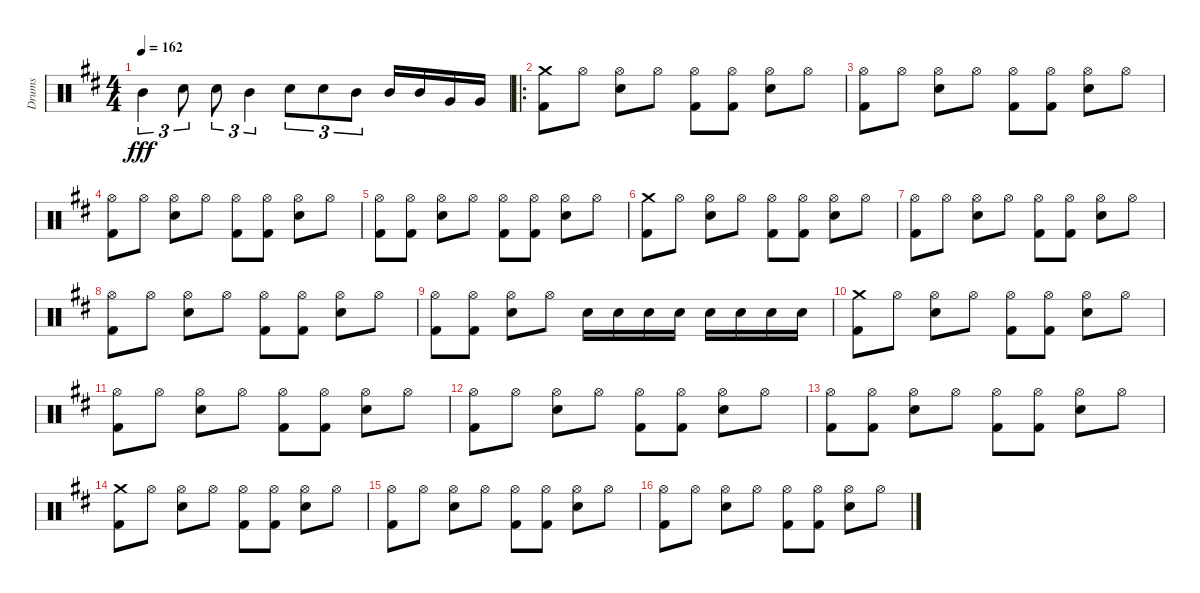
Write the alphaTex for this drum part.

\track ("Drums" "Drums") {instrument percussion}
\staff {score}
\articulation defaults
\ts (4 4)
\tempo 162
\clef neutral
\ks d "Mid Tom (hit)".4{tu (3 2) dy fff} "Snare (hit) 2".8{tu (3 2)} "Snare (hit) 2".8{tu (3 2)} "Mid Tom (hit)".4{tu (3 2)} "Snare (hit) 2".8{tu (3 2)} "Snare (hit) 2".8{tu (3 2)} "Mid Tom (hit)".8{tu (3 2)} "Mid Tom (hit)".16 "Mid Tom (hit)".16 "Very Low Tom (hit)".16 "Very Low Tom (hit)".16
|
\ro
("Crash medium (hit)" "Kick (hit) 2").8 "Hi-Hat (open)".8 ("Hi-Hat (open)" "Snare (hit) 2").8 "Hi-Hat (open)".8 ("Hi-Hat (open)" "Kick (hit) 2").8 ("Hi-Hat (open)" "Kick (hit) 2").8 ("Hi-Hat (open)" "Snare (hit) 2").8 "Hi-Hat (open)".8 |
("Hi-Hat (open)" "Kick (hit) 2").8 "Hi-Hat (open)".8 ("Hi-Hat (open)" "Snare (hit) 2").8 "Hi-Hat (open)".8 ("Hi-Hat (open)" "Kick (hit) 2").8 ("Hi-Hat (open)" "Kick (hit) 2").8 ("Hi-Hat (open)" "Snare (hit) 2").8 "Hi-Hat (open)".8 |
("Hi-Hat (open)" "Kick (hit) 2").8 "Hi-Hat (open)".8 ("Hi-Hat (open)" "Snare (hit) 2").8 "Hi-Hat (open)".8 ("Hi-Hat (open)" "Kick (hit) 2").8 ("Hi-Hat (open)" "Kick (hit) 2").8 ("Hi-Hat (open)" "Snare (hit) 2").8 "Hi-Hat (open)".8 |
("Hi-Hat (open)" "Kick (hit) 2").8 ("Hi-Hat (open)" "Kick (hit) 2").8 ("Hi-Hat (open)" "Snare (hit) 2").8 "Hi-Hat (open)".8 ("Hi-Hat (open)" "Kick (hit) 2").8 ("Hi-Hat (open)" "Kick (hit) 2").8 ("Hi-Hat (open)" "Snare (hit) 2").8 "Hi-Hat (open)".8 |
("Crash medium (hit)" "Kick (hit) 2").8 "Hi-Hat (open)".8 ("Hi-Hat (open)" "Snare (hit) 2").8 "Hi-Hat (open)".8 ("Hi-Hat (open)" "Kick (hit) 2").8 ("Hi-Hat (open)" "Kick (hit) 2").8 ("Hi-Hat (open)" "Snare (hit) 2").8 "Hi-Hat (open)".8 |
("Hi-Hat (open)" "Kick (hit) 2").8 "Hi-Hat (open)".8 ("Hi-Hat (open)" "Snare (hit) 2").8 "Hi-Hat (open)".8 ("Hi-Hat (open)" "Kick (hit) 2").8 ("Hi-Hat (open)" "Kick (hit) 2").8 ("Hi-Hat (open)" "Snare (hit) 2").8 "Hi-Hat (open)".8 |
("Hi-Hat (open)" "Kick (hit) 2").8 "Hi-Hat (open)".8 ("Hi-Hat (open)" "Snare (hit) 2").8 "Hi-Hat (open)".8 ("Hi-Hat (open)" "Kick (hit) 2").8 ("Hi-Hat (open)" "Kick (hit) 2").8 ("Hi-Hat (open)" "Snare (hit) 2").8 "Hi-Hat (open)".8 |
("Hi-Hat (open)" "Kick (hit) 2").8 ("Hi-Hat (open)" "Kick (hit) 2").8 ("Hi-Hat (open)" "Snare (hit) 2").8 "Hi-Hat (open)".8 "Snare (hit) 2".16 "Snare (hit) 2".16 "Snare (hit) 2".16 "Snare (hit) 2".16 "Snare (hit) 2".16 "Snare (hit) 2".16 "Snare (hit) 2".16 "Snare (hit) 2".16 |
("Crash medium (hit)" "Kick (hit) 2").8 "Hi-Hat (open)".8 ("Hi-Hat (open)" "Snare (hit) 2").8 "Hi-Hat (open)".8 ("Hi-Hat (open)" "Kick (hit) 2").8 ("Hi-Hat (open)" "Kick (hit) 2").8 ("Hi-Hat (open)" "Snare (hit) 2").8 "Hi-Hat (open)".8 |
("Hi-Hat (open)" "Kick (hit) 2").8 "Hi-Hat (open)".8 ("Hi-Hat (open)" "Snare (hit) 2").8 "Hi-Hat (open)".8 ("Hi-Hat (open)" "Kick (hit) 2").8 ("Hi-Hat (open)" "Kick (hit) 2").8 ("Hi-Hat (open)" "Snare (hit) 2").8 "Hi-Hat (open)".8 |
("Hi-Hat (open)" "Kick (hit) 2").8 "Hi-Hat (open)".8 ("Hi-Hat (open)" "Snare (hit) 2").8 "Hi-Hat (open)".8 ("Hi-Hat (open)" "Kick (hit) 2").8 ("Hi-Hat (open)" "Kick (hit) 2").8 ("Hi-Hat (open)" "Snare (hit) 2").8 "Hi-Hat (open)".8 |
("Hi-Hat (open)" "Kick (hit) 2").8 ("Hi-Hat (open)" "Kick (hit) 2").8 ("Hi-Hat (open)" "Snare (hit) 2").8 "Hi-Hat (open)".8 ("Hi-Hat (open)" "Kick (hit) 2").8 ("Hi-Hat (open)" "Kick (hit) 2").8 ("Hi-Hat (open)" "Snare (hit) 2").8 "Hi-Hat (open)".8 |
("Crash medium (hit)" "Kick (hit) 2").8 "Hi-Hat (open)".8 ("Hi-Hat (open)" "Snare (hit) 2").8 "Hi-Hat (open)".8 ("Hi-Hat (open)" "Kick (hit) 2").8 ("Hi-Hat (open)" "Kick (hit) 2").8 ("Hi-Hat (open)" "Snare (hit) 2").8 "Hi-Hat (open)".8 |
("Hi-Hat (open)" "Kick (hit) 2").8 "Hi-Hat (open)".8 ("Hi-Hat (open)" "Snare (hit) 2").8 "Hi-Hat (open)".8 ("Hi-Hat (open)" "Kick (hit) 2").8 ("Hi-Hat (open)" "Kick (hit) 2").8 ("Hi-Hat (open)" "Snare (hit) 2").8 "Hi-Hat (open)".8 |
("Hi-Hat (open)" "Kick (hit) 2").8 "Hi-Hat (open)".8 ("Hi-Hat (open)" "Snare (hit) 2").8 "Hi-Hat (open)".8 ("Hi-Hat (open)" "Kick (hit) 2").8 ("Hi-Hat (open)" "Kick (hit) 2").8 ("Hi-Hat (open)" "Snare (hit) 2").8 "Hi-Hat (open)".8
